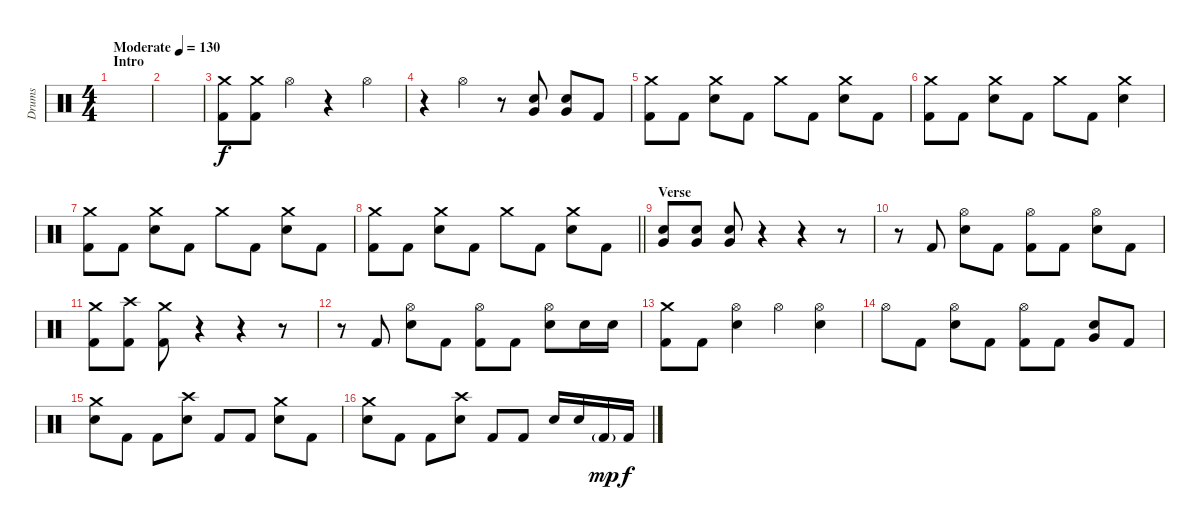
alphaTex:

\track ("Drums" "Drums") {instrument percussion}
\staff {score}
\articulation defaults
\ts (4 4)
\section ("" "Intro")
\tempo (130 "Moderate")
\clef neutral
\ks c
|
|
("Crash medium (hit)" "Kick (hit) 2").8 ("Crash medium (hit)" "Kick (hit) 2").8 "Hi-Hat (open)".4 r.4 "Hi-Hat (open)".4 |
r.4 "Hi-Hat (open)".4 r.8 ("Very Low Tom (hit)" "Electric Snare (hit)").8 ("Very Low Tom (hit)" "Electric Snare (hit)").8 "Kick (hit) 2".8 |
("Crash medium (hit)" "Kick (hit) 2").8 "Kick (hit) 2".8 ("Crash medium (hit)" "Electric Snare (hit)").8 "Kick (hit) 2".8 "Crash medium (hit)".8 "Kick (hit) 2".8 ("Crash medium (hit)" "Electric Snare (hit)").8 "Kick (hit) 2".8 |
("Crash medium (hit)" "Kick (hit) 2").8 "Kick (hit) 2".8 ("Crash medium (hit)" "Electric Snare (hit)").8 "Kick (hit) 2".8 "Crash medium (hit)".8 "Kick (hit) 2".8 ("Crash medium (hit)" "Electric Snare (hit)").4 |
("Crash medium (hit)" "Kick (hit) 2").8 "Kick (hit) 2".8 ("Crash medium (hit)" "Electric Snare (hit)").8 "Kick (hit) 2".8 "Crash medium (hit)".8 "Kick (hit) 2".8 ("Crash medium (hit)" "Electric Snare (hit)").8 "Kick (hit) 2".8 |
\barLineRight lightlight
("Crash medium (hit)" "Kick (hit) 2").8 "Kick (hit) 2".8 ("Crash medium (hit)" "Electric Snare (hit)").8 "Kick (hit) 2".8 "Crash medium (hit)".8 "Kick (hit) 2".8 ("Crash medium (hit)" "Electric Snare (hit)").8 "Kick (hit) 2".8 |
\section ("" "Verse")
("Very Low Tom (hit)" "Electric Snare (hit)").8 ("Very Low Tom (hit)" "Electric Snare (hit)").8 ("Very Low Tom (hit)" "Electric Snare (hit)").8 r.4 r.4 r.8 |
r.8 "Kick (hit) 2".8 ("Hi-Hat (open)" "Electric Snare (hit)").8 "Kick (hit) 2".8 ("Hi-Hat (open)" "Kick (hit) 2").8 "Kick (hit) 2".8 ("Hi-Hat (open)" "Electric Snare (hit)").8 "Kick (hit) 2".8 |
("Crash medium (hit)" "Kick (hit) 2").8 ("Crash high (hit)" "Kick (hit) 2").8 ("Crash medium (hit)" "Kick (hit) 2").8 r.4 r.4 r.8 |
r.8 "Kick (hit) 2".8 ("Hi-Hat (open)" "Electric Snare (hit)").8 "Kick (hit) 2".8 ("Hi-Hat (open)" "Kick (hit) 2").8 "Kick (hit) 2".8 ("Hi-Hat (open)" "Electric Snare (hit)").8 "Electric Snare (hit)".16 "Electric Snare (hit)".16 |
("Crash medium (hit)" "Kick (hit) 2").8 "Kick (hit) 2".8 ("Hi-Hat (open)" "Electric Snare (hit)").4 "Hi-Hat (open)".4 ("Hi-Hat (open)" "Electric Snare (hit)").4 |
"Hi-Hat (open)".8 "Kick (hit) 2".8 ("Hi-Hat (open)" "Electric Snare (hit)").8 "Kick (hit) 2".8 ("Hi-Hat (open)" "Kick (hit) 2").8 "Kick (hit) 2".8 ("Very Low Tom (hit)" "Electric Snare (hit)").8 "Kick (hit) 2".8 |
("Crash medium (hit)" "Electric Snare (hit)").8 "Kick (hit) 2".8 "Kick (hit) 2".8 ("Crash high (hit)" "Electric Snare (hit)").8 "Kick (hit) 2".8 "Kick (hit) 2".8 ("Crash medium (hit)" "Electric Snare (hit)").8 "Kick (hit) 2".8 |
("Crash medium (hit)" "Electric Snare (hit)").8 "Kick (hit) 2".8 "Kick (hit) 2".8 ("Crash high (hit)" "Electric Snare (hit)").8 "Kick (hit) 2".8 "Kick (hit) 2".8 "Electric Snare (hit)".16 "Electric Snare (hit)".16 "Kick (hit) 2"{g}.16{dy mp} "Kick (hit) 2".16{dy f}
